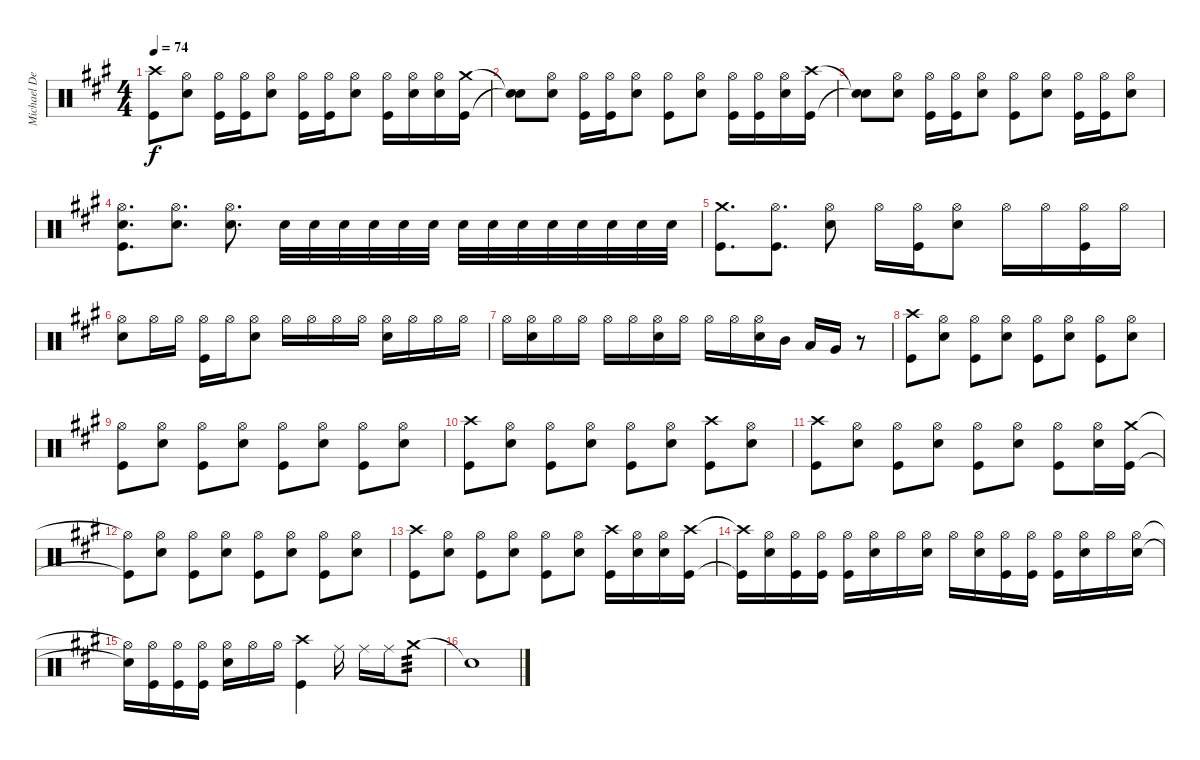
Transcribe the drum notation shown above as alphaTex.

\track ("Michael Derosier Drums" "Michael De") {instrument percussion}
\staff {score}
\articulation defaults
\ts (4 4)
\tempo 74
\clef neutral
\ks a
("Crash high (hit)" "Kick (hit)").8{dy f} ("Hi-Hat (open)" "Snare (hit) 2").8 ("Hi-Hat (open)" "Kick (hit)").16 ("Hi-Hat (open)" "Kick (hit)").16 ("Hi-Hat (open)" "Snare (hit) 2").8 ("Hi-Hat (open)" "Kick (hit)").16 ("Hi-Hat (open)" "Kick (hit)").16 ("Hi-Hat (open)" "Snare (hit) 2").8 ("Hi-Hat (open)" "Kick (hit)").16 ("Hi-Hat (open)" "Snare (hit) 2").16 ("Hi-Hat (open)" "Snare (hit) 2").16 ("Crash medium (hit)" "Kick (hit)").16 |
("Snare (hit)"{t} "Snare (hit)"{t}).8 ("Hi-Hat (open)" "Snare (hit) 2").8 ("Hi-Hat (open)" "Kick (hit)").16 ("Hi-Hat (open)" "Kick (hit)").16 ("Hi-Hat (open)" "Snare (hit) 2").8 ("Hi-Hat (open)" "Kick (hit)").8 ("Hi-Hat (open)" "Snare (hit) 2").8 ("Hi-Hat (open)" "Kick (hit)").16 ("Hi-Hat (open)" "Kick (hit)").16 ("Hi-Hat (open)" "Snare (hit) 2").16 ("Crash high (hit)" "Kick (hit)").16 |
("Snare (hit)"{t} "Snare (hit)"{t}).8 ("Hi-Hat (open)" "Snare (hit) 2").8 ("Hi-Hat (open)" "Kick (hit)").16 ("Hi-Hat (open)" "Kick (hit)").16 ("Hi-Hat (open)" "Snare (hit) 2").8 ("Hi-Hat (open)" "Kick (hit)").8 ("Hi-Hat (open)" "Snare (hit) 2").8 ("Hi-Hat (open)" "Kick (hit)").16 ("Hi-Hat (open)" "Kick (hit)").16 ("Hi-Hat (open)" "Snare (hit) 2").8 |
("Hi-Hat (open)" "Snare (hit) 2" "Kick (hit)").8{d} ("Hi-Hat (open)" "Snare (hit) 2").8{d} ("Hi-Hat (open)" "Snare (hit) 2").8{d} "Snare (hit) 2".32 "Snare (hit) 2".32 "Snare (hit) 2".32 "Snare (hit) 2".32 "Snare (hit) 2".32 "Snare (hit) 2".32 "Snare (hit) 2".32 "Snare (hit) 2".32 "Snare (hit) 2".32 "Snare (hit) 2".32 "Snare (hit) 2".32 "Snare (hit) 2".32 "Snare (hit) 2".32 "Snare (hit) 2".32 |
("Crash medium (hit)" "Kick (hit)").8{d} ("Hi-Hat (open)" "Kick (hit)").8{d} ("Hi-Hat (open)" "Snare (hit) 2").8 "Hi-Hat (open)".16 ("Hi-Hat (open)" "Kick (hit)").16 ("Hi-Hat (open)" "Snare (hit) 2").8 "Hi-Hat (open)".16 "Hi-Hat (open)".16 ("Hi-Hat (open)" "Kick (hit)").16 "Hi-Hat (open)".16 |
("Hi-Hat (open)" "Snare (hit) 2").8 "Hi-Hat (open)".16 "Hi-Hat (open)".16 ("Hi-Hat (open)" "Kick (hit)").16 "Hi-Hat (open)".16 ("Hi-Hat (open)" "Snare (hit) 2").8 "Hi-Hat (open)".16 "Hi-Hat (open)".16 "Hi-Hat (open)".16 "Hi-Hat (open)".16 ("Hi-Hat (open)" "Snare (hit) 2").16 "Hi-Hat (open)".16 "Hi-Hat (open)".16 "Hi-Hat (open)".16 |
"Hi-Hat (open)".16 ("Hi-Hat (open)" "Snare (hit) 2").16 "Hi-Hat (open)".16 "Hi-Hat (open)".16 "Hi-Hat (open)".16 "Hi-Hat (open)".16 ("Hi-Hat (open)" "Snare (hit) 2").16 "Hi-Hat (open)".16 "Hi-Hat (open)".16 "Hi-Hat (open)".16 ("Hi-Hat (open)" "Snare (hit) 2").16 "Mid Tom (hit)".16 "Low Tom (hit)".16 "Very Low Tom (hit)".16 r.8 |
("Crash high (hit)" "Kick (hit)").8 ("Hi-Hat (open)" "Snare (hit) 2").8 ("Hi-Hat (open)" "Kick (hit)").8 ("Hi-Hat (open)" "Snare (hit) 2").8 ("Hi-Hat (open)" "Kick (hit)").8 ("Hi-Hat (open)" "Snare (hit) 2").8 ("Hi-Hat (open)" "Kick (hit)").8 ("Hi-Hat (open)" "Snare (hit) 2").8 |
("Hi-Hat (open)" "Kick (hit)").8 ("Hi-Hat (open)" "Snare (hit) 2").8 ("Hi-Hat (open)" "Kick (hit)").8 ("Hi-Hat (open)" "Snare (hit) 2").8 ("Hi-Hat (open)" "Kick (hit)").8 ("Hi-Hat (open)" "Snare (hit) 2").8 ("Hi-Hat (open)" "Kick (hit)").8 ("Hi-Hat (open)" "Snare (hit) 2").8 |
("Crash high (hit)" "Kick (hit)").8 ("Hi-Hat (open)" "Snare (hit) 2").8 ("Hi-Hat (open)" "Kick (hit)").8 ("Hi-Hat (open)" "Snare (hit) 2").8 ("Hi-Hat (open)" "Kick (hit)").8 ("Hi-Hat (open)" "Snare (hit) 2").8 ("Crash high (hit)" "Kick (hit)").8 ("Hi-Hat (open)" "Snare (hit) 2").8 |
("Crash high (hit)" "Kick (hit)").8 ("Hi-Hat (open)" "Snare (hit) 2").8 ("Hi-Hat (open)" "Kick (hit)").8 ("Hi-Hat (open)" "Snare (hit) 2").8 ("Hi-Hat (open)" "Kick (hit)").8 ("Hi-Hat (open)" "Snare (hit) 2").8 ("Hi-Hat (open)" "Kick (hit)").8 ("Hi-Hat (open)" "Snare (hit) 2").16 ("Crash medium (hit)" "Kick (hit)").16 |
("Hi-Hat (open)"{t} "Kick (hit)"{t}).8 ("Hi-Hat (open)" "Snare (hit) 2").8 ("Hi-Hat (open)" "Kick (hit)").8 ("Hi-Hat (open)" "Snare (hit) 2").8 ("Hi-Hat (open)" "Kick (hit)").8 ("Hi-Hat (open)" "Snare (hit) 2").8 ("Hi-Hat (open)" "Kick (hit)").8 ("Hi-Hat (open)" "Snare (hit) 2").8 |
("Crash high (hit)" "Kick (hit)").8 ("Hi-Hat (open)" "Snare (hit) 2").8 ("Hi-Hat (open)" "Kick (hit)").8 ("Hi-Hat (open)" "Snare (hit) 2").8 ("Hi-Hat (open)" "Kick (hit)").8 ("Hi-Hat (open)" "Snare (hit) 2").8 ("Crash high (hit)" "Kick (hit)").16 ("Hi-Hat (open)" "Snare (hit) 2").16 ("Hi-Hat (open)" "Snare (hit) 2").16 ("Crash high (hit)" "Kick (hit)").16 |
("Crash high (hit)"{t} "Kick (hit)"{t}).16 ("Hi-Hat (open)" "Snare (hit) 2").16 ("Hi-Hat (open)" "Kick (hit)").16 ("Hi-Hat (open)" "Kick (hit)").16 ("Hi-Hat (open)" "Kick (hit)").16 ("Hi-Hat (open)" "Snare (hit) 2").16 "Hi-Hat (open)".16 ("Hi-Hat (open)" "Snare (hit) 2").16 "Hi-Hat (open)".16 ("Hi-Hat (open)" "Snare (hit) 2").16 ("Hi-Hat (open)" "Kick (hit)").16 ("Hi-Hat (open)" "Kick (hit)").16 ("Hi-Hat (open)" "Kick (hit)").16 ("Hi-Hat (open)" "Snare (hit) 2").16 "Hi-Hat (open)".16 ("Hi-Hat (open)" "Snare (hit) 2").16 |
("Hi-Hat (open)"{t} "Snare (hit) 2"{t}).16 ("Hi-Hat (open)" "Kick (hit)").16 ("Hi-Hat (open)" "Kick (hit)").16 ("Hi-Hat (open)" "Kick (hit)").16 ("Hi-Hat (open)" "Snare (hit) 2").16 "Hi-Hat (open)".16 "Hi-Hat (open)".16 ("Crash high (hit)" "Kick (hit)").4 "Ride (middle)".16 "Ride (middle)".16 "Ride (middle)".16 "Crash medium (hit)".8{tp 3} |
"Snare (hit)"{t}.1
